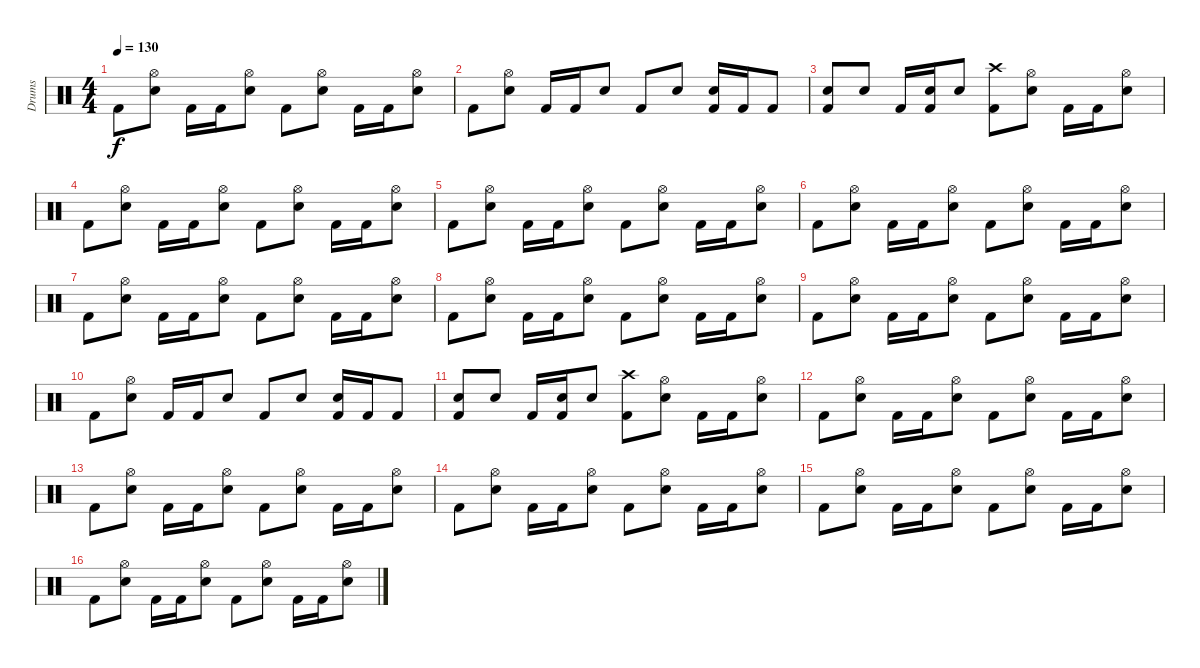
\track ("Drums" "Drums") {instrument percussion}
\staff {score}
\articulation defaults
\ts (4 4)
\tempo 130
\clef neutral
\ks c "Kick (hit) 2".8{dy f}
("Hi-Hat (open)" "Snare (hit) 2").8 "Kick (hit) 2".16 "Kick (hit) 2".16 ("Hi-Hat (open)" "Snare (hit) 2").8 "Kick (hit) 2".8 ("Hi-Hat (open)" "Snare (hit) 2").8 "Kick (hit) 2".16 "Kick (hit) 2".16 ("Hi-Hat (open)" "Snare (hit) 2").8 |
"Kick (hit) 2".8 ("Hi-Hat (open)" "Snare (hit) 2").8 "Kick (hit) 2".16 "Kick (hit) 2".16 "Snare (hit) 2".8 "Kick (hit) 2".8 "Snare (hit) 2".8 ("Snare (hit) 2" "Kick (hit) 2").16 "Kick (hit) 2".16 "Kick (hit) 2".8 |
("Snare (hit) 2" "Kick (hit) 2").8 "Snare (hit) 2".8 "Kick (hit) 2".16 ("Snare (hit) 2" "Kick (hit) 2").16 "Snare (hit) 2".8 ("Crash high (hit)" "Kick (hit) 2").8 ("Hi-Hat (open)" "Snare (hit) 2").8 "Kick (hit) 2".16 "Kick (hit) 2".16 ("Hi-Hat (open)" "Snare (hit) 2").8 |
"Kick (hit) 2".8 ("Hi-Hat (open)" "Snare (hit) 2").8 "Kick (hit) 2".16 "Kick (hit) 2".16 ("Hi-Hat (open)" "Snare (hit) 2").8 "Kick (hit) 2".8 ("Hi-Hat (open)" "Snare (hit) 2").8 "Kick (hit) 2".16 "Kick (hit) 2".16 ("Hi-Hat (open)" "Snare (hit) 2").8 |
"Kick (hit) 2".8 ("Hi-Hat (open)" "Snare (hit) 2").8 "Kick (hit) 2".16 "Kick (hit) 2".16 ("Hi-Hat (open)" "Snare (hit) 2").8 "Kick (hit) 2".8 ("Hi-Hat (open)" "Snare (hit) 2").8 "Kick (hit) 2".16 "Kick (hit) 2".16 ("Hi-Hat (open)" "Snare (hit) 2").8 |
"Kick (hit) 2".8 ("Hi-Hat (open)" "Snare (hit) 2").8 "Kick (hit) 2".16 "Kick (hit) 2".16 ("Hi-Hat (open)" "Snare (hit) 2").8 "Kick (hit) 2".8 ("Hi-Hat (open)" "Snare (hit) 2").8 "Kick (hit) 2".16 "Kick (hit) 2".16 ("Hi-Hat (open)" "Snare (hit) 2").8 |
"Kick (hit) 2".8 ("Hi-Hat (open)" "Snare (hit) 2").8 "Kick (hit) 2".16 "Kick (hit) 2".16 ("Hi-Hat (open)" "Snare (hit) 2").8 "Kick (hit) 2".8 ("Hi-Hat (open)" "Snare (hit) 2").8 "Kick (hit) 2".16 "Kick (hit) 2".16 ("Hi-Hat (open)" "Snare (hit) 2").8 |
"Kick (hit) 2".8 ("Hi-Hat (open)" "Snare (hit) 2").8 "Kick (hit) 2".16 "Kick (hit) 2".16 ("Hi-Hat (open)" "Snare (hit) 2").8 "Kick (hit) 2".8 ("Hi-Hat (open)" "Snare (hit) 2").8 "Kick (hit) 2".16 "Kick (hit) 2".16 ("Hi-Hat (open)" "Snare (hit) 2").8 |
"Kick (hit) 2".8 ("Hi-Hat (open)" "Snare (hit) 2").8 "Kick (hit) 2".16 "Kick (hit) 2".16 ("Hi-Hat (open)" "Snare (hit) 2").8 "Kick (hit) 2".8 ("Hi-Hat (open)" "Snare (hit) 2").8 "Kick (hit) 2".16 "Kick (hit) 2".16 ("Hi-Hat (open)" "Snare (hit) 2").8 |
"Kick (hit) 2".8 ("Hi-Hat (open)" "Snare (hit) 2").8 "Kick (hit) 2".16 "Kick (hit) 2".16 "Snare (hit) 2".8 "Kick (hit) 2".8 "Snare (hit) 2".8 ("Snare (hit) 2" "Kick (hit) 2").16 "Kick (hit) 2".16 "Kick (hit) 2".8 |
("Snare (hit) 2" "Kick (hit) 2").8 "Snare (hit) 2".8 "Kick (hit) 2".16 ("Snare (hit) 2" "Kick (hit) 2").16 "Snare (hit) 2".8 ("Crash high (hit)" "Kick (hit) 2").8 ("Hi-Hat (open)" "Snare (hit) 2").8 "Kick (hit) 2".16 "Kick (hit) 2".16 ("Hi-Hat (open)" "Snare (hit) 2").8 |
"Kick (hit) 2".8 ("Hi-Hat (open)" "Snare (hit) 2").8 "Kick (hit) 2".16 "Kick (hit) 2".16 ("Hi-Hat (open)" "Snare (hit) 2").8 "Kick (hit) 2".8 ("Hi-Hat (open)" "Snare (hit) 2").8 "Kick (hit) 2".16 "Kick (hit) 2".16 ("Hi-Hat (open)" "Snare (hit) 2").8 |
"Kick (hit) 2".8 ("Hi-Hat (open)" "Snare (hit) 2").8 "Kick (hit) 2".16 "Kick (hit) 2".16 ("Hi-Hat (open)" "Snare (hit) 2").8 "Kick (hit) 2".8 ("Hi-Hat (open)" "Snare (hit) 2").8 "Kick (hit) 2".16 "Kick (hit) 2".16 ("Hi-Hat (open)" "Snare (hit) 2").8 |
"Kick (hit) 2".8 ("Hi-Hat (open)" "Snare (hit) 2").8 "Kick (hit) 2".16 "Kick (hit) 2".16 ("Hi-Hat (open)" "Snare (hit) 2").8 "Kick (hit) 2".8 ("Hi-Hat (open)" "Snare (hit) 2").8 "Kick (hit) 2".16 "Kick (hit) 2".16 ("Hi-Hat (open)" "Snare (hit) 2").8 |
"Kick (hit) 2".8 ("Hi-Hat (open)" "Snare (hit) 2").8 "Kick (hit) 2".16 "Kick (hit) 2".16 ("Hi-Hat (open)" "Snare (hit) 2").8 "Kick (hit) 2".8 ("Hi-Hat (open)" "Snare (hit) 2").8 "Kick (hit) 2".16 "Kick (hit) 2".16 ("Hi-Hat (open)" "Snare (hit) 2").8 |
"Kick (hit) 2".8 ("Hi-Hat (open)" "Snare (hit) 2").8 "Kick (hit) 2".16 "Kick (hit) 2".16 ("Hi-Hat (open)" "Snare (hit) 2").8 "Kick (hit) 2".8 ("Hi-Hat (open)" "Snare (hit) 2").8 "Kick (hit) 2".16 "Kick (hit) 2".16 ("Hi-Hat (open)" "Snare (hit) 2").8
